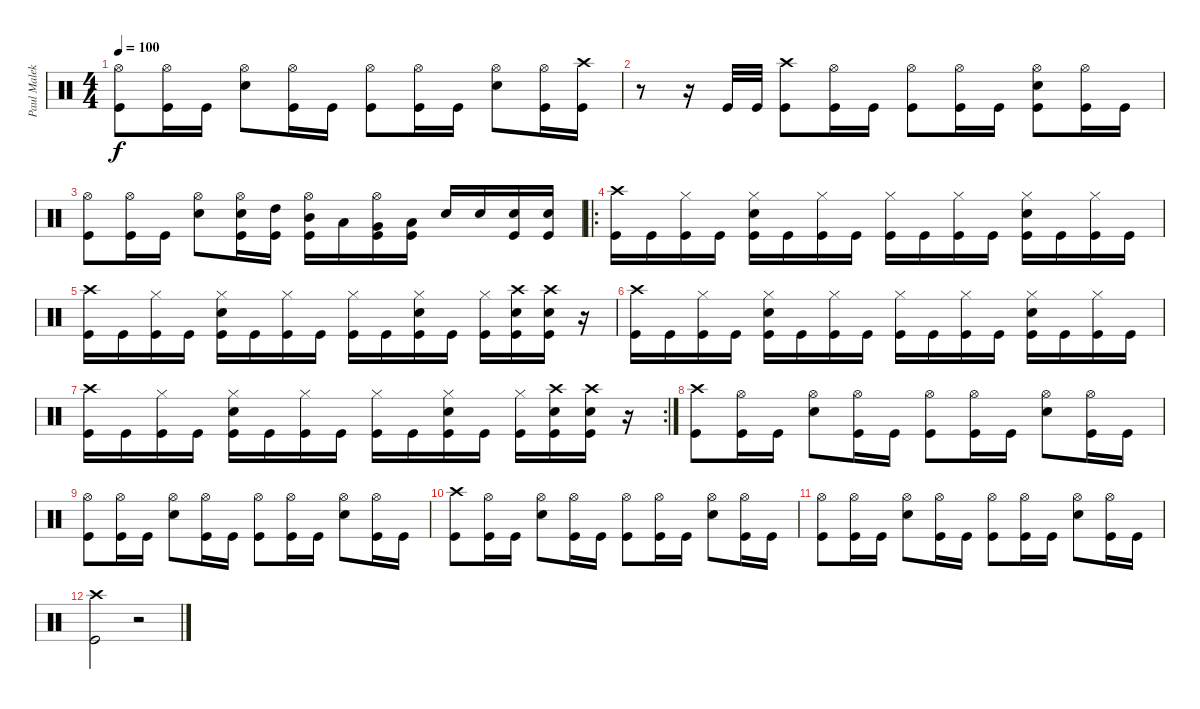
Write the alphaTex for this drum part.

\track ("Paul Malek" "Paul Malek") {instrument percussion}
\staff {score}
\articulation defaults
\ts (4 4)
\tempo 100
\clef neutral
\ks c
("Hi-Hat (open)" "Kick (hit)").8{dy f} ("Hi-Hat (open)" "Kick (hit)").16 "Kick (hit)".16 ("Hi-Hat (open)" "Snare (hit) 2").8 ("Hi-Hat (open)" "Kick (hit)").16 "Kick (hit)".16 ("Hi-Hat (open)" "Kick (hit)").8 ("Hi-Hat (open)" "Kick (hit)").16 "Kick (hit)".16 ("Hi-Hat (open)" "Snare (hit) 2").8 ("Hi-Hat (open)" "Kick (hit)").16 ("Crash high (hit)" "Kick (hit)").16 |
r.8 r.16 "Kick (hit)".32 "Kick (hit)".32 ("Crash high (hit)" "Kick (hit)").8 ("Hi-Hat (open)" "Kick (hit)").16 "Kick (hit)".16 ("Hi-Hat (open)" "Kick (hit)").8 ("Hi-Hat (open)" "Kick (hit)").16 "Kick (hit)".16 ("Hi-Hat (open)" "Snare (hit) 2" "Kick (hit)").8 ("Hi-Hat (open)" "Kick (hit)").16 "Kick (hit)".16 |
("Hi-Hat (open)" "Kick (hit)").8 ("Hi-Hat (open)" "Kick (hit)").16 "Kick (hit)".16 ("Hi-Hat (open)" "Snare (hit) 2").8 ("Hi-Hat (open)" "Electric Snare (hit)" "Kick (hit)").16 ("High Tom (hit)" "Kick (hit)").16 ("Hi-Hat (open)" "Mid Tom (hit)" "Kick (hit)").16 "Low Tom (hit)".16 ("Hi-Hat (open)" "Very Low Tom (hit)" "Kick (hit)").16 ("Low Floor Tom (hit)" "Kick (hit)").16 "Snare (hit) 2".16 "Snare (hit) 2".16 ("Snare (hit) 2" "Kick (hit)").16 ("Snare (hit) 2" "Kick (hit)").16 |
\ro
("Crash high (hit)" "Kick (hit)").16 "Kick (hit)".16 ("Hi-Hat (closed)" "Kick (hit)").16 "Kick (hit)".16 ("Hi-Hat (closed)" "Snare (hit) 2" "Kick (hit)").16 "Kick (hit)".16 ("Hi-Hat (closed)" "Kick (hit)").16 "Kick (hit)".16 ("Hi-Hat (closed)" "Kick (hit)").16 "Kick (hit)".16 ("Hi-Hat (closed)" "Kick (hit)").16 "Kick (hit)".16 ("Hi-Hat (closed)" "Snare (hit) 2" "Kick (hit)").16 "Kick (hit)".16 ("Hi-Hat (closed)" "Kick (hit)").16 "Kick (hit)".16 |
("Crash high (hit)" "Kick (hit)").16 "Kick (hit)".16 ("Hi-Hat (closed)" "Kick (hit)").16 "Kick (hit)".16 ("Hi-Hat (closed)" "Snare (hit) 2" "Kick (hit)").16 "Kick (hit)".16 ("Hi-Hat (closed)" "Kick (hit)").16 "Kick (hit)".16 ("Hi-Hat (closed)" "Kick (hit)").16 "Kick (hit)".16 ("Hi-Hat (closed)" "Snare (hit) 2" "Kick (hit)").16 "Kick (hit)".16 ("Hi-Hat (closed)" "Kick (hit)").16 ("Snare (hit) 2" "Crash high (hit)" "Kick (hit)").16 ("Snare (hit) 2" "Crash high (hit)" "Kick (hit)").16 r.16 |
("Crash high (hit)" "Kick (hit)").16 "Kick (hit)".16 ("Hi-Hat (closed)" "Kick (hit)").16 "Kick (hit)".16 ("Hi-Hat (closed)" "Snare (hit) 2" "Kick (hit)").16 "Kick (hit)".16 ("Hi-Hat (closed)" "Kick (hit)").16 "Kick (hit)".16 ("Hi-Hat (closed)" "Kick (hit)").16 "Kick (hit)".16 ("Hi-Hat (closed)" "Kick (hit)").16 "Kick (hit)".16 ("Hi-Hat (closed)" "Snare (hit) 2" "Kick (hit)").16 "Kick (hit)".16 ("Hi-Hat (closed)" "Kick (hit)").16 "Kick (hit)".16 |
\rc 2
("Crash high (hit)" "Kick (hit)").16 "Kick (hit)".16 ("Hi-Hat (closed)" "Kick (hit)").16 "Kick (hit)".16 ("Hi-Hat (closed)" "Snare (hit) 2" "Kick (hit)").16 "Kick (hit)".16 ("Hi-Hat (closed)" "Kick (hit)").16 "Kick (hit)".16 ("Hi-Hat (closed)" "Kick (hit)").16 "Kick (hit)".16 ("Hi-Hat (closed)" "Snare (hit) 2" "Kick (hit)").16 "Kick (hit)".16 ("Hi-Hat (closed)" "Kick (hit)").16 ("Snare (hit) 2" "Crash high (hit)" "Kick (hit)").16 ("Snare (hit) 2" "Crash high (hit)" "Kick (hit)").16 r.16 |
("Crash high (hit)" "Kick (hit)").8 ("Hi-Hat (open)" "Kick (hit)").16 "Kick (hit)".16 ("Hi-Hat (open)" "Snare (hit) 2").8 ("Hi-Hat (open)" "Kick (hit)").16 "Kick (hit)".16 ("Hi-Hat (open)" "Kick (hit)").8 ("Hi-Hat (open)" "Kick (hit)").16 "Kick (hit)".16 ("Hi-Hat (open)" "Snare (hit) 2").8 ("Hi-Hat (open)" "Kick (hit)").16 "Kick (hit)".16 |
("Hi-Hat (open)" "Kick (hit)").8 ("Hi-Hat (open)" "Kick (hit)").16 "Kick (hit)".16 ("Hi-Hat (open)" "Snare (hit) 2").8 ("Hi-Hat (open)" "Kick (hit)").16 "Kick (hit)".16 ("Hi-Hat (open)" "Kick (hit)").8 ("Hi-Hat (open)" "Kick (hit)").16 "Kick (hit)".16 ("Hi-Hat (open)" "Snare (hit) 2").8 ("Hi-Hat (open)" "Kick (hit)").16 "Kick (hit)".16 |
("Crash high (hit)" "Kick (hit)").8 ("Hi-Hat (open)" "Kick (hit)").16 "Kick (hit)".16 ("Hi-Hat (open)" "Snare (hit) 2").8 ("Hi-Hat (open)" "Kick (hit)").16 "Kick (hit)".16 ("Hi-Hat (open)" "Kick (hit)").8 ("Hi-Hat (open)" "Kick (hit)").16 "Kick (hit)".16 ("Hi-Hat (open)" "Snare (hit) 2").8 ("Hi-Hat (open)" "Kick (hit)").16 "Kick (hit)".16 |
("Hi-Hat (open)" "Kick (hit)").8 ("Hi-Hat (open)" "Kick (hit)").16 "Kick (hit)".16 ("Hi-Hat (open)" "Snare (hit) 2").8 ("Hi-Hat (open)" "Kick (hit)").16 "Kick (hit)".16 ("Hi-Hat (open)" "Kick (hit)").8 ("Hi-Hat (open)" "Kick (hit)").16 "Kick (hit)".16 ("Hi-Hat (open)" "Snare (hit) 2").8 ("Hi-Hat (open)" "Kick (hit)").16 "Kick (hit)".16 |
("Crash high (hit)" "Kick (hit)").2 r.2
